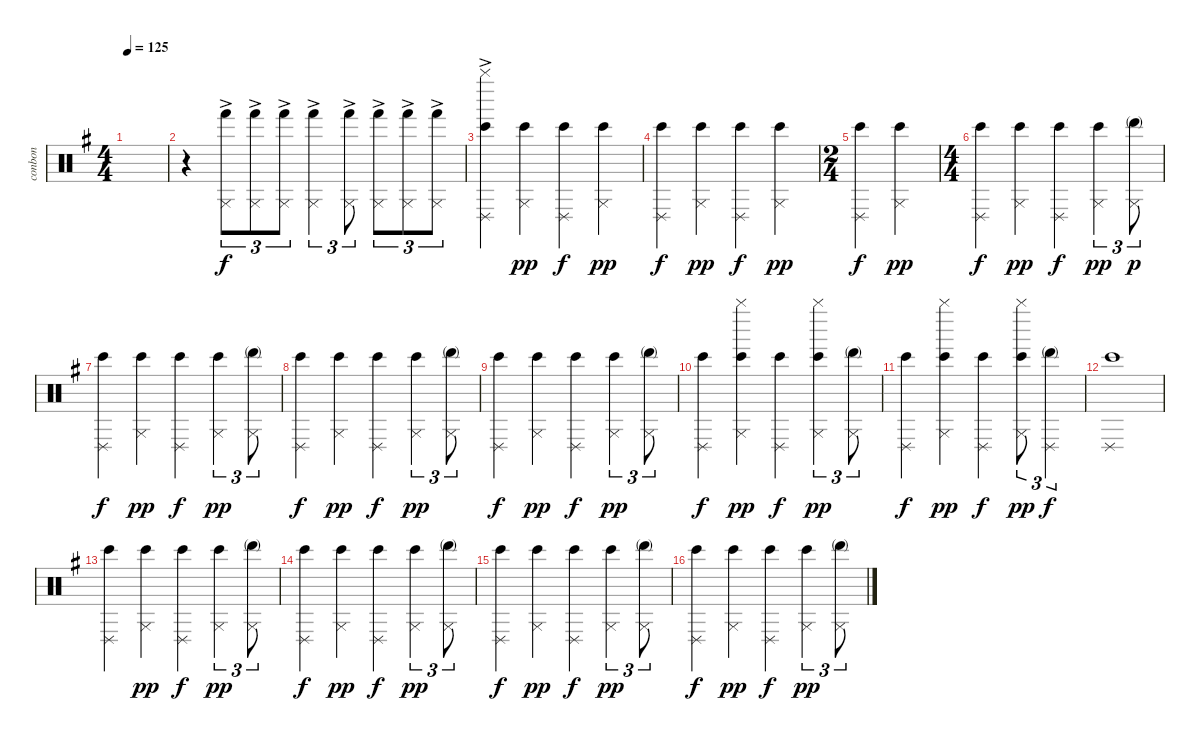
\defaultSystemsLayout 4
\bracketExtendMode groupsimilarinstruments
\otherSystemsTrackNameOrientation horizontal
\track ("Bongos N Congas" "conbon") {instrument percussion}
\staff {score}
\articulation defaults
\ts (4 4)
\tempo 125
\clef neutral
\scale
0.333333
\ks g
|
\scale
0.333333 r.4{beam Down} ("Conga high (slap)"{ac acc forcenatural} "Hand (hit)"{acc forcenatural}).8{tu (3 2) beam Down} ("Conga high (slap)"{ac acc forcenatural} "Hand (hit)"{acc forcenatural}).8{tu (3 2) beam Down} ("Conga high (slap)"{ac acc forcenatural} "Hand (hit)"{acc forcenatural}).8{tu (3 2) beam Down} ("Conga high (slap)"{ac acc forcenatural} "Hand (hit)"{acc forcenatural}).4{tu (3 2) beam Down} ("Conga high (slap)"{ac acc forcenatural} "Hand (hit)"{acc forcenatural}).8{tu (3 2) beam Down} ("Conga high (slap)"{ac acc forcenatural} "Hand (hit)"{acc forcenatural}).8{tu (3 2) beam Down} ("Conga high (slap)"{ac acc forcenatural} "Hand (hit)"{acc forcenatural}).8{tu (3 2) beam Down} ("Conga high (slap)"{ac acc forcenatural} "Hand (hit)"{acc forcenatural}).8{tu (3 2) beam Down} |
\scale
0.262911 ("Conga low (slap)"{acc forcenatural} "Hand (slap) 2"{ac acc forcenatural} "Bongo High (hit)"{ac acc forcenatural}).4{beam Down} ("Conga high (slap)"{acc forcenatural} "Bongo High (hit)"{acc forcenatural}).4{dy pp beam Down} ("Conga low (slap)"{acc forcenatural} "Bongo High (hit)"{acc forcenatural}).4{dy f beam Down} ("Conga high (slap)"{acc forcenatural} "Bongo High (hit)"{acc forcenatural}).4{dy pp beam Down} |
\scale
0.262911 ("Conga low (slap)"{acc forcenatural} "Bongo High (hit)"{acc forcenatural}).4{dy f beam Down} ("Conga high (slap)"{acc forcenatural} "Bongo High (hit)"{acc forcenatural}).4{dy pp beam Down} ("Conga low (slap)"{acc forcenatural} "Bongo High (hit)"{acc forcenatural}).4{dy f beam Down} ("Conga high (slap)"{acc forcenatural} "Bongo High (hit)"{acc forcenatural}).4{dy pp beam Down} |
\ts (2 4)
\scale
0.474178 ("Conga low (slap)"{acc forcenatural} "Bongo High (hit)"{acc forcenatural}).4{dy f beam Down} ("Conga high (slap)"{acc forcenatural} "Bongo High (hit)"{acc forcenatural}).4{dy pp beam Down} |
\ts (4 4)
\scale
0.474178 ("Conga low (slap)"{acc forcenatural} "Bongo High (hit)"{acc forcenatural}).4{dy f beam Down} ("Conga high (slap)"{acc forcenatural} "Bongo High (hit)"{acc forcenatural}).4{dy pp beam Down} ("Conga low (slap)"{acc forcenatural} "Bongo High (hit)"{acc forcenatural}).4{dy f beam Down} ("Conga high (slap)"{acc forcenatural} "Bongo High (hit)"{acc forcenatural}).4{tu (3 2) dy pp beam Down} ("Conga high (slap)"{acc forcenatural} "Hand (mute)"{acc forcenatural}).8{tu (3 2) dy p beam Down} |
\scale
0.262911 ("Conga low (slap)"{acc forcenatural} "Bongo High (hit)"{acc forcenatural}).4{dy f beam Down} ("Conga high (slap)"{acc forcenatural} "Bongo High (hit)"{acc forcenatural}).4{dy pp beam Down} ("Conga low (slap)"{acc forcenatural} "Bongo High (hit)"{acc forcenatural}).4{dy f beam Down} ("Conga high (slap)"{acc forcenatural} "Bongo High (hit)"{acc forcenatural}).4{tu (3 2) dy pp beam Down} ("Conga high (slap)"{acc forcenatural} "Hand (mute)"{acc forcenatural}).8{tu (3 2) beam Down} |
\scale
0.262911 ("Conga low (slap)"{acc forcenatural} "Bongo High (hit)"{acc forcenatural}).4{dy f beam Down} ("Conga high (slap)"{acc forcenatural} "Bongo High (hit)"{acc forcenatural}).4{dy pp beam Down} ("Conga low (slap)"{acc forcenatural} "Bongo High (hit)"{acc forcenatural}).4{dy f beam Down} ("Conga high (slap)"{acc forcenatural} "Bongo High (hit)"{acc forcenatural}).4{tu (3 2) dy pp beam Down} ("Conga high (slap)"{acc forcenatural} "Hand (mute)"{acc forcenatural}).8{tu (3 2) beam Down} |
\scale
0.333333 ("Conga low (slap)"{acc forcenatural} "Bongo High (hit)"{acc forcenatural}).4{dy f beam Down} ("Conga high (slap)"{acc forcenatural} "Bongo High (hit)"{acc forcenatural}).4{dy pp beam Down} ("Conga low (slap)"{acc forcenatural} "Bongo High (hit)"{acc forcenatural}).4{dy f beam Down} ("Conga high (slap)"{acc forcenatural} "Bongo High (hit)"{acc forcenatural}).4{tu (3 2) dy pp beam Down} ("Conga high (slap)"{acc forcenatural} "Hand (mute)"{acc forcenatural}).8{tu (3 2) beam Down} |
\scale
0.333333 ("Conga low (slap)"{acc forcenatural} "Bongo High (hit)"{acc forcenatural}).4{dy f beam Down} ("Conga high (slap)"{acc forcenatural} "Hand (slap) 2"{acc forcenatural} "Bongo High (hit)"{acc forcenatural}).4{dy pp beam Down} ("Conga low (slap)"{acc forcenatural} "Bongo High (hit)"{acc forcenatural}).4{dy f beam Down} ("Conga high (slap)"{acc forcenatural} "Hand (slap) 2"{acc forcenatural} "Bongo High (hit)"{acc forcenatural}).4{tu (3 2) dy pp beam Down} ("Conga high (slap)"{acc forcenatural} "Hand (mute)"{acc forcenatural}).8{tu (3 2) beam Down} |
\scale
0.333333 ("Conga low (slap)"{acc forcenatural} "Bongo High (hit)"{acc forcenatural}).4{dy f beam Down} ("Conga high (slap)"{acc forcenatural} "Hand (slap) 2"{acc forcenatural} "Bongo High (hit)"{acc forcenatural}).4{dy pp beam Down} ("Conga low (slap)"{acc forcenatural} "Bongo High (hit)"{acc forcenatural}).4{dy f beam Down} ("Conga high (slap)"{acc forcenatural} "Hand (slap) 2"{acc forcenatural} "Bongo High (hit)"{acc forcenatural}).8{tu (3 2) dy pp beam Down} ("Conga low (slap)"{acc forcenatural} "Hand (mute)"{acc forcenatural}).4{tu (3 2) dy f beam Down} |
\scale
0.333333 ("Conga low (slap)"{acc forcenatural} "Bongo High (hit)"{acc forcenatural}).1{beam Down} |
\scale
0.333333 ("Conga low (slap)"{acc forcenatural} "Bongo High (hit)"{acc forcenatural}).4{beam Down} ("Conga high (slap)"{acc forcenatural} "Bongo High (hit)"{acc forcenatural}).4{dy pp beam Down} ("Conga low (slap)"{acc forcenatural} "Bongo High (hit)"{acc forcenatural}).4{dy f beam Down} ("Conga high (slap)"{acc forcenatural} "Bongo High (hit)"{acc forcenatural}).4{tu (3 2) dy pp beam Down} ("Conga high (slap)"{acc forcenatural} "Hand (mute)"{acc forcenatural}).8{tu (3 2) beam Down} |
\scale
0.333333 ("Conga low (slap)"{acc forcenatural} "Bongo High (hit)"{acc forcenatural}).4{dy f beam Down} ("Conga high (slap)"{acc forcenatural} "Bongo High (hit)"{acc forcenatural}).4{dy pp beam Down} ("Conga low (slap)"{acc forcenatural} "Bongo High (hit)"{acc forcenatural}).4{dy f beam Down} ("Conga high (slap)"{acc forcenatural} "Bongo High (hit)"{acc forcenatural}).4{tu (3 2) dy pp beam Down} ("Conga high (slap)"{acc forcenatural} "Hand (mute)"{acc forcenatural}).8{tu (3 2) beam Down} |
\scale
0.333333 ("Conga low (slap)"{acc forcenatural} "Bongo High (hit)"{acc forcenatural}).4{dy f beam Down} ("Conga high (slap)"{acc forcenatural} "Bongo High (hit)"{acc forcenatural}).4{dy pp beam Down} ("Conga low (slap)"{acc forcenatural} "Bongo High (hit)"{acc forcenatural}).4{dy f beam Down} ("Conga high (slap)"{acc forcenatural} "Bongo High (hit)"{acc forcenatural}).4{tu (3 2) dy pp beam Down} ("Conga high (slap)"{acc forcenatural} "Hand (mute)"{acc forcenatural}).8{tu (3 2) beam Down} |
\scale
0.333333 ("Conga low (slap)"{acc forcenatural} "Bongo High (hit)"{acc forcenatural}).4{dy f beam Down} ("Conga high (slap)"{acc forcenatural} "Bongo High (hit)"{acc forcenatural}).4{dy pp beam Down} ("Conga low (slap)"{acc forcenatural} "Bongo High (hit)"{acc forcenatural}).4{dy f beam Down} ("Conga high (slap)"{acc forcenatural} "Bongo High (hit)"{acc forcenatural}).4{tu (3 2) dy pp beam Down} ("Conga high (slap)"{acc forcenatural} "Hand (mute)"{acc forcenatural}).8{tu (3 2) beam Down}
